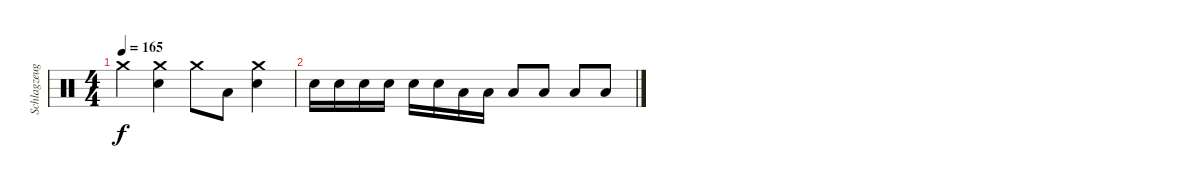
\track ("Schlagzeug" "Schlagzeug") {instrument percussion}
\staff {score}
\articulation defaults
\ts (4 4)
\tempo 165
\clef neutral
\ks c "Crash medium (hit)".4{dy f}
("Electric Snare (hit)" "Crash medium (hit)").4 "Crash medium (hit)".8 "Low Floor Tom (hit)".8 ("Electric Snare (hit)" "Crash medium (hit)").4 |
"Electric Snare (hit)".16 "Electric Snare (hit)".16 "Electric Snare (hit)".16 "Electric Snare (hit)".16 "Electric Snare (hit)".16 "Electric Snare (hit)".16 "Low Floor Tom (hit)".16 "Low Floor Tom (hit)".16 "Low Floor Tom (hit)".8 "Low Floor Tom (hit)".8 "Low Floor Tom (hit)".8 "Low Floor Tom (hit)".8
